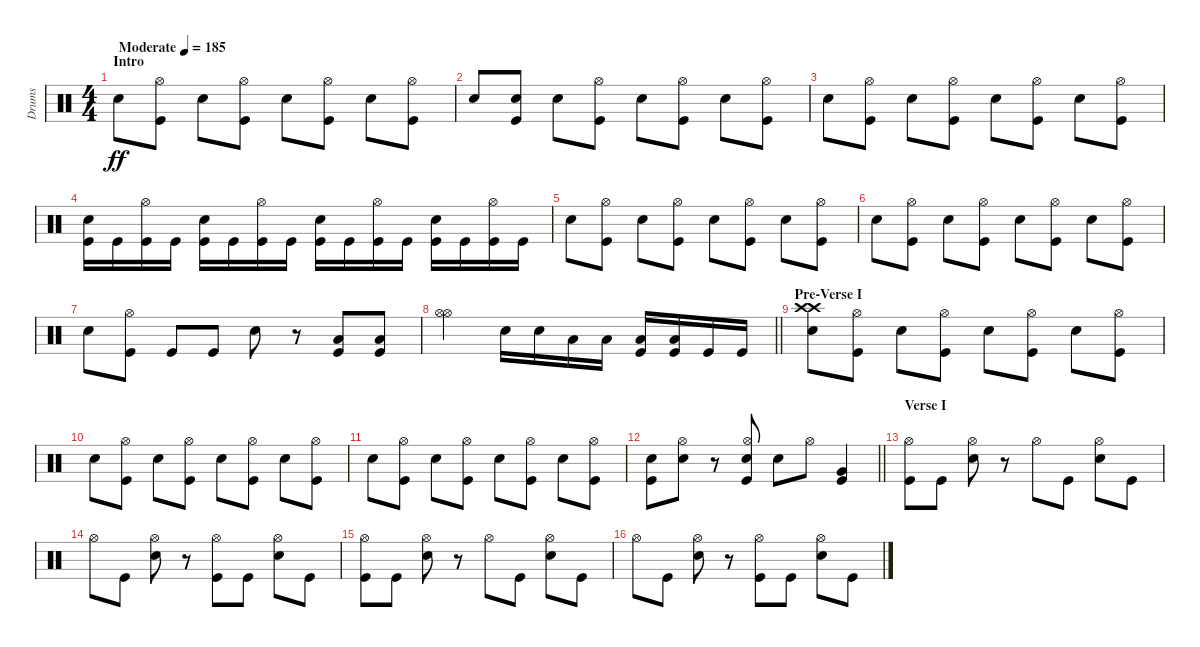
\track ("Drums" "Drums") {instrument percussion}
\staff {score}
\articulation defaults
\ts (4 4)
\section ("" "Intro")
\tempo (185 "Moderate")
\clef neutral
\ks c "Electric Snare (hit)".8{dy ff volume 14}
("Hi-Hat (open)" "Kick (hit)").8 "Electric Snare (hit)".8 ("Hi-Hat (open)" "Kick (hit)").8 "Electric Snare (hit)".8 ("Hi-Hat (open)" "Kick (hit)").8 "Electric Snare (hit)".8 ("Hi-Hat (open)" "Kick (hit)").8 |
"Electric Snare (hit)".8 ("Electric Snare (hit)" "Kick (hit)").8 "Electric Snare (hit)".8 ("Hi-Hat (open)" "Kick (hit)").8 "Electric Snare (hit)".8 ("Hi-Hat (open)" "Kick (hit)").8 "Electric Snare (hit)".8 ("Hi-Hat (open)" "Kick (hit)").8 |
"Electric Snare (hit)".8 ("Hi-Hat (open)" "Kick (hit)").8 "Electric Snare (hit)".8 ("Hi-Hat (open)" "Kick (hit)").8 "Electric Snare (hit)".8 ("Hi-Hat (open)" "Kick (hit)").8 "Electric Snare (hit)".8 ("Hi-Hat (open)" "Kick (hit)").8 |
("Electric Snare (hit)" "Kick (hit)").16 "Kick (hit)".16 ("Hi-Hat (open)" "Kick (hit)").16 "Kick (hit)".16 ("Electric Snare (hit)" "Kick (hit)").16 "Kick (hit)".16 ("Hi-Hat (open)" "Kick (hit)").16 "Kick (hit)".16 ("Electric Snare (hit)" "Kick (hit)").16 "Kick (hit)".16 ("Hi-Hat (open)" "Kick (hit)").16 "Kick (hit)".16 ("Electric Snare (hit)" "Kick (hit)").16 "Kick (hit)".16 ("Hi-Hat (open)" "Kick (hit)").16 "Kick (hit)".16 |
"Electric Snare (hit)".8 ("Hi-Hat (open)" "Kick (hit)").8 "Electric Snare (hit)".8 ("Hi-Hat (open)" "Kick (hit)").8 "Electric Snare (hit)".8 ("Hi-Hat (open)" "Kick (hit)").8 "Electric Snare (hit)".8 ("Hi-Hat (open)" "Kick (hit)").8 |
"Electric Snare (hit)".8 ("Hi-Hat (open)" "Kick (hit)").8 "Electric Snare (hit)".8 ("Hi-Hat (open)" "Kick (hit)").8 "Electric Snare (hit)".8 ("Hi-Hat (open)" "Kick (hit)").8 "Electric Snare (hit)".8 ("Hi-Hat (open)" "Kick (hit)").8 |
"Electric Snare (hit)".8 ("Hi-Hat (open)" "Kick (hit)").8 "Kick (hit)".8 "Kick (hit)".8 "Electric Snare (hit)".8 r.8 ("Low Floor Tom (hit)" "Kick (hit)").8 ("Low Floor Tom (hit)" "Kick (hit)").8 |
\barLineRight lightlight
("Hi-Hat (open)" "Hi-Hat (open)").2 "Electric Snare (hit)".16 "Electric Snare (hit)".16 "Low Floor Tom (hit)".16 "Low Floor Tom (hit)".16 ("Low Floor Tom (hit)" "Kick (hit)").16 ("Low Floor Tom (hit)" "Kick (hit)").16 "Kick (hit)".16 "Kick (hit)".16 |
\section ("" "Pre-Verse I")
("Crash high (hit)" "Crash high (hit)" "Electric Snare (hit)").8{volume 10} ("Hi-Hat (open)" "Kick (hit)").8 "Electric Snare (hit)".8 ("Hi-Hat (open)" "Kick (hit)").8 "Electric Snare (hit)".8 ("Hi-Hat (open)" "Kick (hit)").8 "Electric Snare (hit)".8 ("Hi-Hat (open)" "Kick (hit)").8 |
"Electric Snare (hit)".8 ("Hi-Hat (open)" "Kick (hit)").8 "Electric Snare (hit)".8 ("Hi-Hat (open)" "Kick (hit)").8 "Electric Snare (hit)".8 ("Hi-Hat (open)" "Kick (hit)").8 "Electric Snare (hit)".8 ("Hi-Hat (open)" "Kick (hit)").8 |
"Electric Snare (hit)".8 ("Hi-Hat (open)" "Kick (hit)").8 "Electric Snare (hit)".8 ("Hi-Hat (open)" "Kick (hit)").8 "Electric Snare (hit)".8 ("Hi-Hat (open)" "Kick (hit)").8 "Electric Snare (hit)".8 ("Hi-Hat (open)" "Kick (hit)").8 |
\barLineRight lightlight
("Electric Snare (hit)" "Kick (hit)").8 ("Hi-Hat (open)" "Electric Snare (hit)").8 r.8 ("Hi-Hat (open)" "Electric Snare (hit)" "Kick (hit)").8 "Electric Snare (hit)".8 "Hi-Hat (open)".8 ("Very Low Tom (hit)" "Kick (hit)").4 |
\section ("" "Verse I")
("Hi-Hat (open)" "Kick (hit)").8 "Kick (hit)".8 ("Hi-Hat (open)" "Electric Snare (hit)").8 r.8 "Hi-Hat (open)".8 "Kick (hit)".8 ("Hi-Hat (open)" "Electric Snare (hit)").8 "Kick (hit)".8 |
"Hi-Hat (open)".8 "Kick (hit)".8 ("Hi-Hat (open)" "Electric Snare (hit)").8 r.8 ("Hi-Hat (open)" "Kick (hit)").8 "Kick (hit)".8 ("Hi-Hat (open)" "Electric Snare (hit)").8 "Kick (hit)".8 |
("Hi-Hat (open)" "Kick (hit)").8 "Kick (hit)".8 ("Hi-Hat (open)" "Electric Snare (hit)").8 r.8 "Hi-Hat (open)".8 "Kick (hit)".8 ("Hi-Hat (open)" "Electric Snare (hit)").8 "Kick (hit)".8 |
"Hi-Hat (open)".8 "Kick (hit)".8 ("Hi-Hat (open)" "Electric Snare (hit)").8 r.8 ("Hi-Hat (open)" "Kick (hit)").8 "Kick (hit)".8 ("Hi-Hat (open)" "Electric Snare (hit)").8 "Kick (hit)".8
